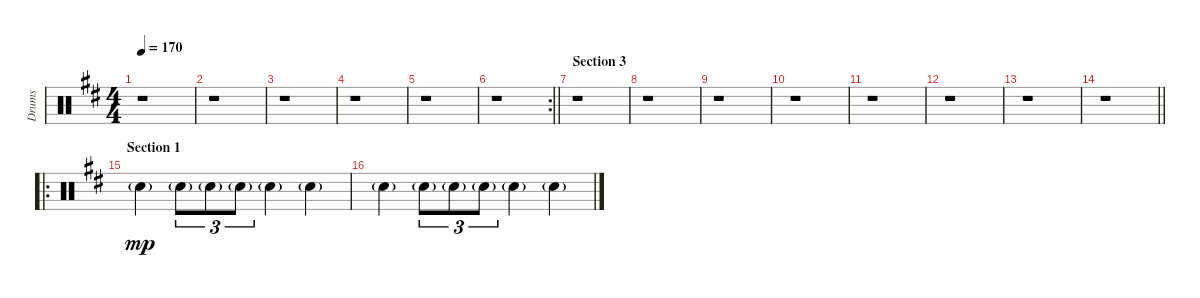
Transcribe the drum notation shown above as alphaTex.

\track ("Drums" "Drums") {instrument percussion}
\staff {score}
\articulation defaults
\ts (4 4)
\tempo 170
\clef neutral
\ks d
r.1{dy mp} |
r.1 |
r.1 |
r.1 |
r.1 |
\rc 2
\barLineRight lightlight
r.1 |
\section ("" "Section 3")
r.1 |
r.1 |
r.1 |
r.1 |
r.1 |
r.1 |
r.1 |
\barLineRight lightlight
r.1 |
\ro
\section ("" "Section 1")
"Snare (hit) 2"{g}.4 "Snare (hit) 2"{g}.8{tu (3 2)} "Snare (hit) 2"{g}.8{tu (3 2)} "Snare (hit) 2"{g}.8{tu (3 2)} "Snare (hit) 2"{g}.4 "Snare (hit) 2"{g}.4 |
"Snare (hit) 2"{g}.4 "Snare (hit) 2"{g}.8{tu (3 2)} "Snare (hit) 2"{g}.8{tu (3 2)} "Snare (hit) 2"{g}.8{tu (3 2)} "Snare (hit) 2"{g}.4 "Snare (hit) 2"{g}.4
